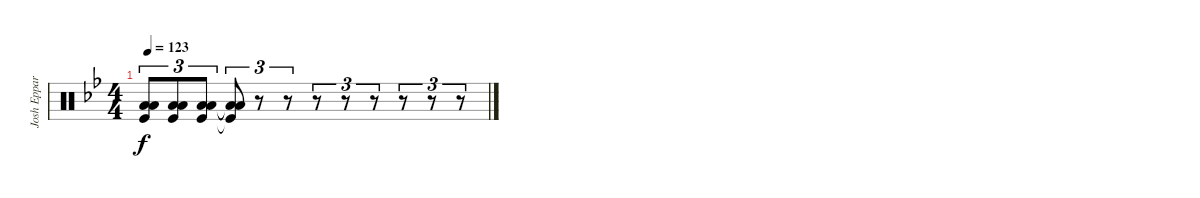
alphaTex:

\track ("Josh Eppard" "Josh Eppar") {instrument percussion}
\staff {score}
\articulation defaults
\ts (4 4)
\tempo 123
\clef neutral
\ks gminor
("Kick (hit)" "Low Floor Tom (hit)" "Low Tom (hit)").8{tu (3 2) dy f} ("Kick (hit)" "Low Floor Tom (hit)" "Low Tom (hit)").8{tu (3 2)} ("Kick (hit)" "Low Floor Tom (hit)" "Low Tom (hit)").8{tu (3 2)} ("Kick (hit)"{t} "Low Floor Tom (hit)"{t} "Low Tom (hit)"{t}).8{tu (3 2)} r.8{tu (3 2)} r.8{tu (3 2)} r.8{tu (3 2)} r.8{tu (3 2)} r.8{tu (3 2)} r.8{tu (3 2)} r.8{tu (3 2)} r.8{tu (3 2)}
